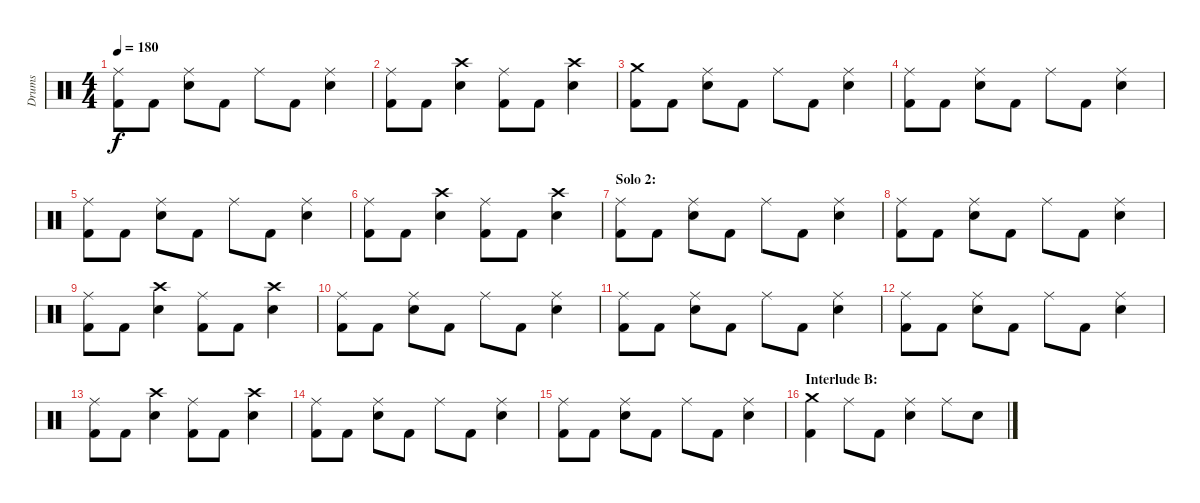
\track ("Drums" "Drums") {instrument percussion}
\staff {score}
\articulation defaults
\ts (4 4)
\tempo 180
\clef neutral
\ks c
("Ride (middle)" "Kick (hit) 2").8{dy f} "Kick (hit) 2".8 ("Ride (middle)" "Electric Snare (hit)").8 "Kick (hit) 2".8 "Ride (middle)".8 "Kick (hit) 2".8 ("Ride (middle)" "Electric Snare (hit)").4 |
("Ride (middle)" "Kick (hit) 2").8 "Kick (hit) 2".8 ("Crash high (hit)" "Electric Snare (hit)").4 ("Ride (middle)" "Kick (hit) 2").8 "Kick (hit) 2".8 ("Crash high (hit)" "Electric Snare (hit)").4 |
("Crash medium (hit)" "Kick (hit) 2").8 "Kick (hit) 2".8 ("Ride (middle)" "Electric Snare (hit)").8 "Kick (hit) 2".8 "Ride (middle)".8 "Kick (hit) 2".8 ("Ride (middle)" "Electric Snare (hit)").4 |
("Ride (middle)" "Kick (hit) 2").8 "Kick (hit) 2".8 ("Ride (middle)" "Electric Snare (hit)").8 "Kick (hit) 2".8 "Ride (middle)".8 "Kick (hit) 2".8 ("Ride (middle)" "Electric Snare (hit)").4 |
("Ride (middle)" "Kick (hit) 2").8 "Kick (hit) 2".8 ("Ride (middle)" "Electric Snare (hit)").8 "Kick (hit) 2".8 "Ride (middle)".8 "Kick (hit) 2".8 ("Ride (middle)" "Electric Snare (hit)").4 |
("Ride (middle)" "Kick (hit) 2").8 "Kick (hit) 2".8 ("Crash high (hit)" "Electric Snare (hit)").4 ("Ride (middle)" "Kick (hit) 2").8 "Kick (hit) 2".8 ("Crash high (hit)" "Electric Snare (hit)").4 |
\section ("" "Solo 2:")
("Ride (middle)" "Kick (hit) 2").8 "Kick (hit) 2".8 ("Ride (middle)" "Electric Snare (hit)").8 "Kick (hit) 2".8 "Ride (middle)".8 "Kick (hit) 2".8 ("Ride (middle)" "Electric Snare (hit)").4 |
("Ride (middle)" "Kick (hit) 2").8 "Kick (hit) 2".8 ("Ride (middle)" "Electric Snare (hit)").8 "Kick (hit) 2".8 "Ride (middle)".8 "Kick (hit) 2".8 ("Ride (middle)" "Electric Snare (hit)").4 |
("Ride (middle)" "Kick (hit) 2").8 "Kick (hit) 2".8 ("Crash high (hit)" "Electric Snare (hit)").4 ("Ride (middle)" "Kick (hit) 2").8 "Kick (hit) 2".8 ("Crash high (hit)" "Electric Snare (hit)").4 |
("Ride (middle)" "Kick (hit) 2").8 "Kick (hit) 2".8 ("Ride (middle)" "Electric Snare (hit)").8 "Kick (hit) 2".8 "Ride (middle)".8 "Kick (hit) 2".8 ("Ride (middle)" "Electric Snare (hit)").4 |
("Ride (middle)" "Kick (hit) 2").8 "Kick (hit) 2".8 ("Ride (middle)" "Electric Snare (hit)").8 "Kick (hit) 2".8 "Ride (middle)".8 "Kick (hit) 2".8 ("Ride (middle)" "Electric Snare (hit)").4 |
("Ride (middle)" "Kick (hit) 2").8 "Kick (hit) 2".8 ("Ride (middle)" "Electric Snare (hit)").8 "Kick (hit) 2".8 "Ride (middle)".8 "Kick (hit) 2".8 ("Ride (middle)" "Electric Snare (hit)").4 |
("Ride (middle)" "Kick (hit) 2").8 "Kick (hit) 2".8 ("Crash high (hit)" "Electric Snare (hit)").4 ("Ride (middle)" "Kick (hit) 2").8 "Kick (hit) 2".8 ("Crash high (hit)" "Electric Snare (hit)").4 |
("Ride (middle)" "Kick (hit) 2").8 "Kick (hit) 2".8 ("Ride (middle)" "Electric Snare (hit)").8 "Kick (hit) 2".8 "Ride (middle)".8 "Kick (hit) 2".8 ("Ride (middle)" "Electric Snare (hit)").4 |
("Ride (middle)" "Kick (hit) 2").8 "Kick (hit) 2".8 ("Ride (middle)" "Electric Snare (hit)").8 "Kick (hit) 2".8 "Ride (middle)".8 "Kick (hit) 2".8 ("Ride (middle)" "Electric Snare (hit)").4 |
\section ("" "Interlude B:")
("Crash medium (hit)" "Kick (hit) 2").4 "Ride (middle)".8 "Kick (hit) 2".8 ("Ride (middle)" "Electric Snare (hit)").4 "Ride (middle)".8 "Electric Snare (hit)".8
